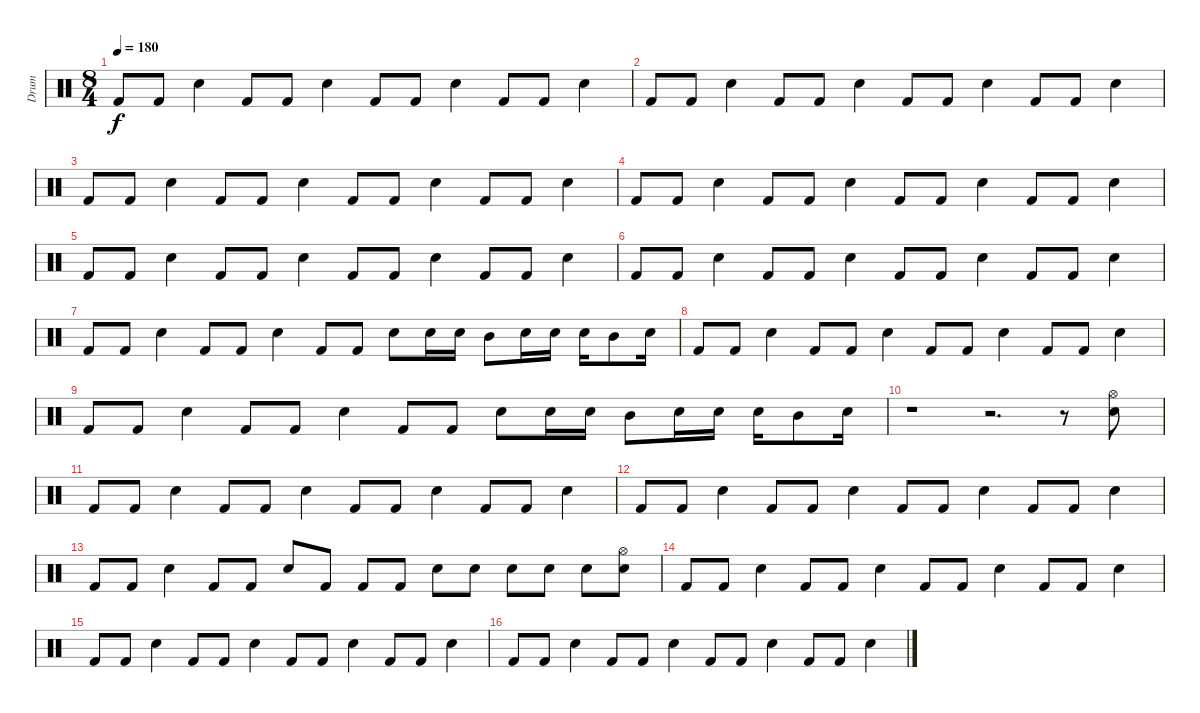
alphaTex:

\track ("Drum" "Drum") {instrument percussion}
\staff {score}
\articulation defaults
\ts (8 4)
\tempo 180
\clef neutral
\ks c "Kick (hit) 2".8{dy f} "Kick (hit) 2".8 "Electric Snare (hit)".4 "Kick (hit) 2".8 "Kick (hit) 2".8 "Electric Snare (hit)".4 "Kick (hit) 2".8 "Kick (hit) 2".8 "Electric Snare (hit)".4 "Kick (hit) 2".8 "Kick (hit) 2".8 "Electric Snare (hit)".4
|
"Kick (hit) 2".8 "Kick (hit) 2".8 "Electric Snare (hit)".4 "Kick (hit) 2".8 "Kick (hit) 2".8 "Electric Snare (hit)".4 "Kick (hit) 2".8 "Kick (hit) 2".8 "Electric Snare (hit)".4 "Kick (hit) 2".8 "Kick (hit) 2".8 "Electric Snare (hit)".4 |
"Kick (hit) 2".8 "Kick (hit) 2".8 "Electric Snare (hit)".4 "Kick (hit) 2".8 "Kick (hit) 2".8 "Electric Snare (hit)".4 "Kick (hit) 2".8 "Kick (hit) 2".8 "Electric Snare (hit)".4 "Kick (hit) 2".8 "Kick (hit) 2".8 "Electric Snare (hit)".4 |
"Kick (hit) 2".8 "Kick (hit) 2".8 "Electric Snare (hit)".4 "Kick (hit) 2".8 "Kick (hit) 2".8 "Electric Snare (hit)".4 "Kick (hit) 2".8 "Kick (hit) 2".8 "Electric Snare (hit)".4 "Kick (hit) 2".8 "Kick (hit) 2".8 "Electric Snare (hit)".4 |
"Kick (hit) 2".8 "Kick (hit) 2".8 "Electric Snare (hit)".4 "Kick (hit) 2".8 "Kick (hit) 2".8 "Electric Snare (hit)".4 "Kick (hit) 2".8 "Kick (hit) 2".8 "Electric Snare (hit)".4 "Kick (hit) 2".8 "Kick (hit) 2".8 "Electric Snare (hit)".4 |
"Kick (hit) 2".8 "Kick (hit) 2".8 "Electric Snare (hit)".4 "Kick (hit) 2".8 "Kick (hit) 2".8 "Electric Snare (hit)".4 "Kick (hit) 2".8 "Kick (hit) 2".8 "Electric Snare (hit)".4 "Kick (hit) 2".8 "Kick (hit) 2".8 "Electric Snare (hit)".4 |
"Kick (hit) 2".8 "Kick (hit) 2".8 "Electric Snare (hit)".4 "Kick (hit) 2".8 "Kick (hit) 2".8 "Electric Snare (hit)".4 "Kick (hit) 2".8 "Kick (hit) 2".8 "Electric Snare (hit)".8 "Electric Snare (hit)".16 "Electric Snare (hit)".16 "Mid Tom (hit)".8 "Electric Snare (hit)".16 "Electric Snare (hit)".16 "Electric Snare (hit)".16 "Mid Tom (hit)".8 "Electric Snare (hit)".16 |
"Kick (hit) 2".8 "Kick (hit) 2".8 "Electric Snare (hit)".4 "Kick (hit) 2".8 "Kick (hit) 2".8 "Electric Snare (hit)".4 "Kick (hit) 2".8 "Kick (hit) 2".8 "Electric Snare (hit)".4 "Kick (hit) 2".8 "Kick (hit) 2".8 "Electric Snare (hit)".4 |
"Kick (hit) 2".8 "Kick (hit) 2".8 "Electric Snare (hit)".4 "Kick (hit) 2".8 "Kick (hit) 2".8 "Electric Snare (hit)".4 "Kick (hit) 2".8 "Kick (hit) 2".8 "Electric Snare (hit)".8 "Electric Snare (hit)".16 "Electric Snare (hit)".16 "Mid Tom (hit)".8 "Electric Snare (hit)".16 "Electric Snare (hit)".16 "Electric Snare (hit)".16 "Mid Tom (hit)".8 "Electric Snare (hit)".16 |
r.1 r.2{d} r.8 ("Electric Snare (hit)" "Hi-Hat (open)").8 |
"Kick (hit) 2".8 "Kick (hit) 2".8 "Electric Snare (hit)".4 "Kick (hit) 2".8 "Kick (hit) 2".8 "Electric Snare (hit)".4 "Kick (hit) 2".8 "Kick (hit) 2".8 "Electric Snare (hit)".4 "Kick (hit) 2".8 "Kick (hit) 2".8 "Electric Snare (hit)".4 |
"Kick (hit) 2".8 "Kick (hit) 2".8 "Electric Snare (hit)".4 "Kick (hit) 2".8 "Kick (hit) 2".8 "Electric Snare (hit)".4 "Kick (hit) 2".8 "Kick (hit) 2".8 "Electric Snare (hit)".4 "Kick (hit) 2".8 "Kick (hit) 2".8 "Electric Snare (hit)".4 |
"Kick (hit) 2".8 "Kick (hit) 2".8 "Electric Snare (hit)".4 "Kick (hit) 2".8 "Kick (hit) 2".8 "Electric Snare (hit)".8 "Kick (hit) 2".8 "Kick (hit) 2".8 "Kick (hit) 2".8 "Electric Snare (hit)".8 "Electric Snare (hit)".8 "Electric Snare (hit)".8 "Electric Snare (hit)".8 "Electric Snare (hit)".8 ("Electric Snare (hit)" "Hi-Hat (open)").8 |
"Kick (hit) 2".8 "Kick (hit) 2".8 "Electric Snare (hit)".4 "Kick (hit) 2".8 "Kick (hit) 2".8 "Electric Snare (hit)".4 "Kick (hit) 2".8 "Kick (hit) 2".8 "Electric Snare (hit)".4 "Kick (hit) 2".8 "Kick (hit) 2".8 "Electric Snare (hit)".4 |
"Kick (hit) 2".8 "Kick (hit) 2".8 "Electric Snare (hit)".4 "Kick (hit) 2".8 "Kick (hit) 2".8 "Electric Snare (hit)".4 "Kick (hit) 2".8 "Kick (hit) 2".8 "Electric Snare (hit)".4 "Kick (hit) 2".8 "Kick (hit) 2".8 "Electric Snare (hit)".4 |
"Kick (hit) 2".8 "Kick (hit) 2".8 "Electric Snare (hit)".4 "Kick (hit) 2".8 "Kick (hit) 2".8 "Electric Snare (hit)".4 "Kick (hit) 2".8 "Kick (hit) 2".8 "Electric Snare (hit)".4 "Kick (hit) 2".8 "Kick (hit) 2".8 "Electric Snare (hit)".4
